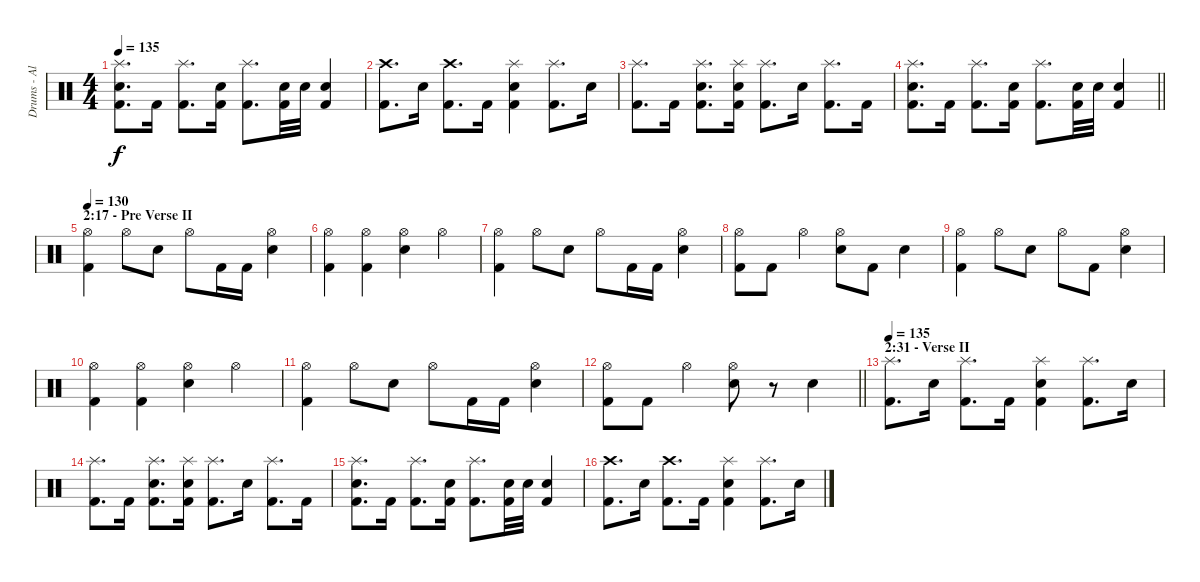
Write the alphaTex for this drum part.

\track ("Drums - Alex Wank" "Drums - Al") {instrument percussion}
\staff {score}
\articulation defaults
\ts (4 4)
\tempo 135
\clef neutral
\ks c
("Splash (hit)" "Electric Snare (hit)" "Kick (hit) 2").8{d dy f} "Kick (hit) 2".16 ("Splash (hit)" "Kick (hit) 2").8{d} ("Electric Snare (hit)" "Kick (hit) 2").16 ("Splash (hit)" "Kick (hit) 2").8{d} ("Electric Snare (hit)" "Kick (hit) 2").32 "Electric Snare (hit)".32 ("Electric Snare (hit)" "Kick (hit) 2").4 |
("Crash high (hit)" "Kick (hit) 2").8{d} "Electric Snare (hit)".16 ("Crash high (hit)" "Kick (hit) 2").8{d} "Kick (hit) 2".16 ("Splash (hit)" "Electric Snare (hit)" "Kick (hit) 2").4 ("Splash (hit)" "Kick (hit) 2").8{d} "Electric Snare (hit)".16 |
("Splash (hit)" "Kick (hit) 2").8{d} "Kick (hit) 2".16 ("Splash (hit)" "Electric Snare (hit)" "Kick (hit) 2").8{d} ("Splash (hit)" "Electric Snare (hit)" "Kick (hit) 2").16 ("Splash (hit)" "Kick (hit) 2").8{d} "Electric Snare (hit)".16 ("Splash (hit)" "Kick (hit) 2").8{d} "Kick (hit) 2".16 |
\barLineRight lightlight
("Splash (hit)" "Electric Snare (hit)" "Kick (hit) 2").8{d} "Kick (hit) 2".16 ("Splash (hit)" "Kick (hit) 2").8{d} ("Electric Snare (hit)" "Kick (hit) 2").16 ("Splash (hit)" "Kick (hit) 2").8{d} ("Electric Snare (hit)" "Kick (hit) 2").32 "Electric Snare (hit)".32 ("Electric Snare (hit)" "Kick (hit) 2").4 |
\section ("" "2:17 - Pre Verse II")
\tempo 130
("Hi-Hat (open)" "Kick (hit) 2").4 "Hi-Hat (open)".8 "Electric Snare (hit)".8 "Hi-Hat (open)".8 "Kick (hit) 2".16 "Kick (hit) 2".16 ("Hi-Hat (open)" "Electric Snare (hit)").4 |
("Hi-Hat (open)" "Kick (hit) 2").4 ("Hi-Hat (open)" "Kick (hit) 2").4 ("Hi-Hat (open)" "Electric Snare (hit)").4 "Hi-Hat (open)".4 |
("Hi-Hat (open)" "Kick (hit) 2").4 "Hi-Hat (open)".8 "Electric Snare (hit)".8 "Hi-Hat (open)".8 "Kick (hit) 2".16 "Kick (hit) 2".16 ("Hi-Hat (open)" "Electric Snare (hit)").4 |
("Hi-Hat (open)" "Kick (hit) 2").8 "Kick (hit) 2".8 "Hi-Hat (open)".4 ("Hi-Hat (open)" "Electric Snare (hit)").8 "Kick (hit) 2".8 "Electric Snare (hit)".4 |
("Hi-Hat (open)" "Kick (hit) 2").4 "Hi-Hat (open)".8 "Electric Snare (hit)".8 "Hi-Hat (open)".8 "Kick (hit) 2".8 ("Hi-Hat (open)" "Electric Snare (hit)").4 |
("Hi-Hat (open)" "Kick (hit) 2").4 ("Hi-Hat (open)" "Kick (hit) 2").4 ("Hi-Hat (open)" "Electric Snare (hit)").4 "Hi-Hat (open)".4 |
("Hi-Hat (open)" "Kick (hit) 2").4 "Hi-Hat (open)".8 "Electric Snare (hit)".8 "Hi-Hat (open)".8 "Kick (hit) 2".16 "Kick (hit) 2".16 ("Hi-Hat (open)" "Electric Snare (hit)").4 |
\barLineRight lightlight
("Hi-Hat (open)" "Kick (hit) 2").8 "Kick (hit) 2".8 "Hi-Hat (open)".4 ("Hi-Hat (open)" "Electric Snare (hit)").8 r.8 "Electric Snare (hit)".4 |
\section ("" "2:31 - Verse II")
\tempo 135
("Splash (hit)" "Kick (hit) 2").8{d} "Electric Snare (hit)".16 ("Splash (hit)" "Kick (hit) 2").8{d} "Kick (hit) 2".16 ("Splash (hit)" "Electric Snare (hit)" "Kick (hit) 2").4 ("Splash (hit)" "Kick (hit) 2").8{d} "Electric Snare (hit)".16 |
("Splash (hit)" "Kick (hit) 2").8{d} "Kick (hit) 2".16 ("Splash (hit)" "Electric Snare (hit)" "Kick (hit) 2").8{d} ("Splash (hit)" "Electric Snare (hit)" "Kick (hit) 2").16 ("Splash (hit)" "Kick (hit) 2").8{d} "Electric Snare (hit)".16 ("Splash (hit)" "Kick (hit) 2").8{d} "Kick (hit) 2".16 |
("Splash (hit)" "Electric Snare (hit)" "Kick (hit) 2").8{d} "Kick (hit) 2".16 ("Splash (hit)" "Kick (hit) 2").8{d} ("Electric Snare (hit)" "Kick (hit) 2").16 ("Splash (hit)" "Kick (hit) 2").8{d} ("Electric Snare (hit)" "Kick (hit) 2").32 "Electric Snare (hit)".32 ("Electric Snare (hit)" "Kick (hit) 2").4 |
("Crash high (hit)" "Kick (hit) 2").8{d} "Electric Snare (hit)".16 ("Crash high (hit)" "Kick (hit) 2").8{d} "Kick (hit) 2".16 ("Splash (hit)" "Electric Snare (hit)" "Kick (hit) 2").4 ("Splash (hit)" "Kick (hit) 2").8{d} "Electric Snare (hit)".16
